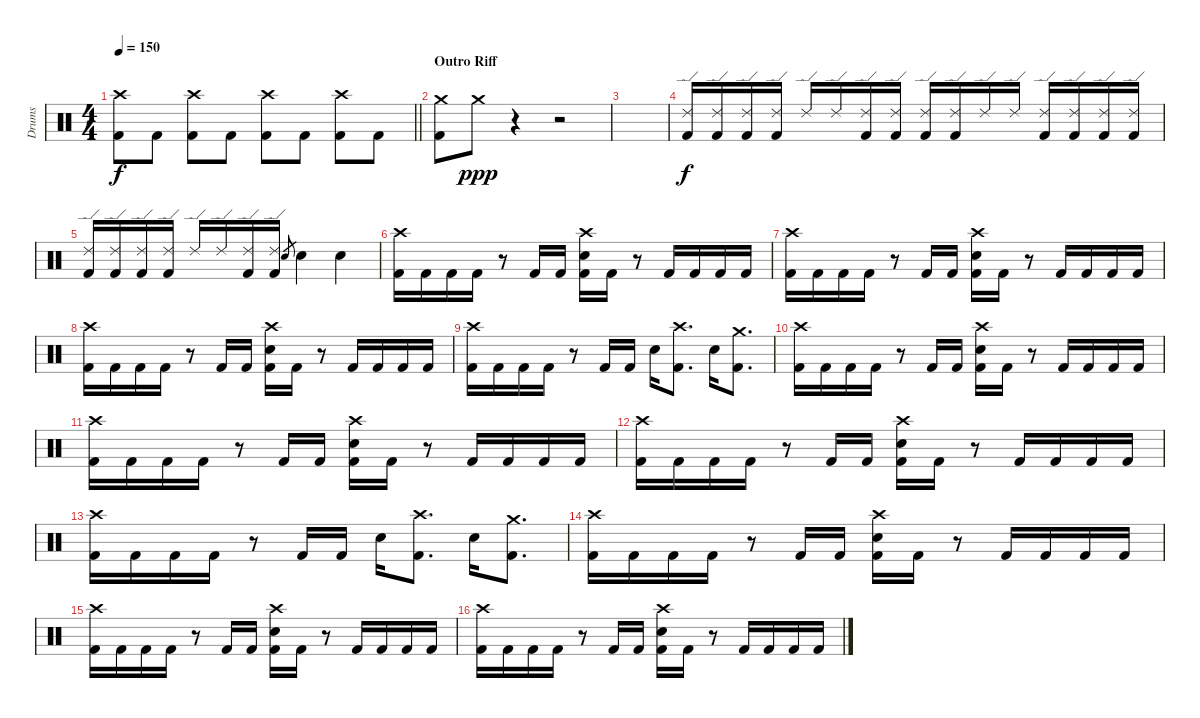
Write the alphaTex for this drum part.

\track ("Drums" "Drums") {instrument percussion}
\staff {score}
\articulation defaults
\ts (4 4)
\tempo 150
\clef neutral
\barLineRight lightlight
\ks c
("Crash high (hit)" "Kick (hit) 2").8{dy f} "Kick (hit) 2".8 ("Crash high (hit)" "Kick (hit) 2").8 "Kick (hit) 2".8 ("Crash high (hit)" "Kick (hit) 2").8 "Kick (hit) 2".8 ("Crash high (hit)" "Kick (hit) 2").8 "Kick (hit) 2".8 |
\section ("" "Outro Riff")
("Crash medium (hit)" "Kick (hit) 2").8{volume 13} "Crash medium (hit)".8{dy ppp} r.4 r.2 |
|
("Ride (edge) 2" "Kick (hit) 2").16{dy f} ("Ride (edge) 2" "Kick (hit) 2").16 ("Ride (edge) 2" "Kick (hit) 2").16 ("Ride (edge) 2" "Kick (hit) 2").16 "Ride (edge) 2".16 "Ride (edge) 2".16 ("Ride (edge) 2" "Kick (hit) 2").16 ("Ride (edge) 2" "Kick (hit) 2").16 ("Ride (edge) 2" "Kick (hit) 2").16 ("Ride (edge) 2" "Kick (hit) 2").16 "Ride (edge) 2".16 "Ride (edge) 2".16 ("Ride (edge) 2" "Kick (hit) 2").16 ("Ride (edge) 2" "Kick (hit) 2").16 ("Ride (edge) 2" "Kick (hit) 2").16 ("Ride (edge) 2" "Kick (hit) 2").16 |
("Ride (edge) 2" "Kick (hit) 2").16 ("Ride (edge) 2" "Kick (hit) 2").16 ("Ride (edge) 2" "Kick (hit) 2").16 ("Ride (edge) 2" "Kick (hit) 2").16 "Ride (edge) 2".16 "Ride (edge) 2".16 ("Ride (edge) 2" "Kick (hit) 2").16 ("Ride (edge) 2" "Kick (hit) 2").16 "Snare (hit) 2".8{gr} "Snare (hit) 2".4 "Snare (hit) 2".4 |
("Crash high (hit)" "Kick (hit) 2").16 "Kick (hit) 2".16 "Kick (hit) 2".16 "Kick (hit) 2".16 r.8 "Kick (hit) 2".16 "Kick (hit) 2".16 ("Crash high (hit)" "Snare (hit) 2" "Kick (hit) 2").16 "Kick (hit) 2".16 r.8 "Kick (hit) 2".16 "Kick (hit) 2".16 "Kick (hit) 2".16 "Kick (hit) 2".16 |
("Crash high (hit)" "Kick (hit) 2").16 "Kick (hit) 2".16 "Kick (hit) 2".16 "Kick (hit) 2".16 r.8 "Kick (hit) 2".16 "Kick (hit) 2".16 ("Crash high (hit)" "Snare (hit) 2" "Kick (hit) 2").16 "Kick (hit) 2".16 r.8 "Kick (hit) 2".16 "Kick (hit) 2".16 "Kick (hit) 2".16 "Kick (hit) 2".16 |
("Crash high (hit)" "Kick (hit) 2").16 "Kick (hit) 2".16 "Kick (hit) 2".16 "Kick (hit) 2".16 r.8 "Kick (hit) 2".16 "Kick (hit) 2".16 ("Crash high (hit)" "Snare (hit) 2" "Kick (hit) 2").16 "Kick (hit) 2".16 r.8 "Kick (hit) 2".16 "Kick (hit) 2".16 "Kick (hit) 2".16 "Kick (hit) 2".16 |
("Crash high (hit)" "Kick (hit) 2").16 "Kick (hit) 2".16 "Kick (hit) 2".16 "Kick (hit) 2".16 r.8 "Kick (hit) 2".16 "Kick (hit) 2".16 "Snare (hit) 2".16 ("Crash high (hit)" "Kick (hit) 2").8{d} "Snare (hit) 2".16 ("Crash medium (hit)" "Kick (hit) 2").8{d} |
("Crash high (hit)" "Kick (hit) 2").16 "Kick (hit) 2".16 "Kick (hit) 2".16 "Kick (hit) 2".16 r.8 "Kick (hit) 2".16 "Kick (hit) 2".16 ("Crash high (hit)" "Snare (hit) 2" "Kick (hit) 2").16 "Kick (hit) 2".16 r.8 "Kick (hit) 2".16 "Kick (hit) 2".16 "Kick (hit) 2".16 "Kick (hit) 2".16 |
("Crash high (hit)" "Kick (hit) 2").16 "Kick (hit) 2".16 "Kick (hit) 2".16 "Kick (hit) 2".16 r.8 "Kick (hit) 2".16 "Kick (hit) 2".16 ("Crash high (hit)" "Snare (hit) 2" "Kick (hit) 2").16 "Kick (hit) 2".16 r.8 "Kick (hit) 2".16 "Kick (hit) 2".16 "Kick (hit) 2".16 "Kick (hit) 2".16 |
("Crash high (hit)" "Kick (hit) 2").16 "Kick (hit) 2".16 "Kick (hit) 2".16 "Kick (hit) 2".16 r.8 "Kick (hit) 2".16 "Kick (hit) 2".16 ("Crash high (hit)" "Snare (hit) 2" "Kick (hit) 2").16 "Kick (hit) 2".16 r.8 "Kick (hit) 2".16 "Kick (hit) 2".16 "Kick (hit) 2".16 "Kick (hit) 2".16 |
("Crash high (hit)" "Kick (hit) 2").16 "Kick (hit) 2".16 "Kick (hit) 2".16 "Kick (hit) 2".16 r.8 "Kick (hit) 2".16 "Kick (hit) 2".16 "Snare (hit) 2".16 ("Crash high (hit)" "Kick (hit) 2").8{d} "Snare (hit) 2".16 ("Crash medium (hit)" "Kick (hit) 2").8{d} |
("Crash high (hit)" "Kick (hit) 2").16 "Kick (hit) 2".16 "Kick (hit) 2".16 "Kick (hit) 2".16 r.8 "Kick (hit) 2".16 "Kick (hit) 2".16 ("Crash high (hit)" "Snare (hit) 2" "Kick (hit) 2").16 "Kick (hit) 2".16 r.8 "Kick (hit) 2".16 "Kick (hit) 2".16 "Kick (hit) 2".16 "Kick (hit) 2".16 |
("Crash high (hit)" "Kick (hit) 2").16 "Kick (hit) 2".16 "Kick (hit) 2".16 "Kick (hit) 2".16 r.8 "Kick (hit) 2".16 "Kick (hit) 2".16 ("Crash high (hit)" "Snare (hit) 2" "Kick (hit) 2").16 "Kick (hit) 2".16 r.8 "Kick (hit) 2".16 "Kick (hit) 2".16 "Kick (hit) 2".16 "Kick (hit) 2".16 |
("Crash high (hit)" "Kick (hit) 2").16 "Kick (hit) 2".16 "Kick (hit) 2".16 "Kick (hit) 2".16 r.8 "Kick (hit) 2".16 "Kick (hit) 2".16 ("Crash high (hit)" "Snare (hit) 2" "Kick (hit) 2").16 "Kick (hit) 2".16 r.8 "Kick (hit) 2".16 "Kick (hit) 2".16 "Kick (hit) 2".16 "Kick (hit) 2".16
